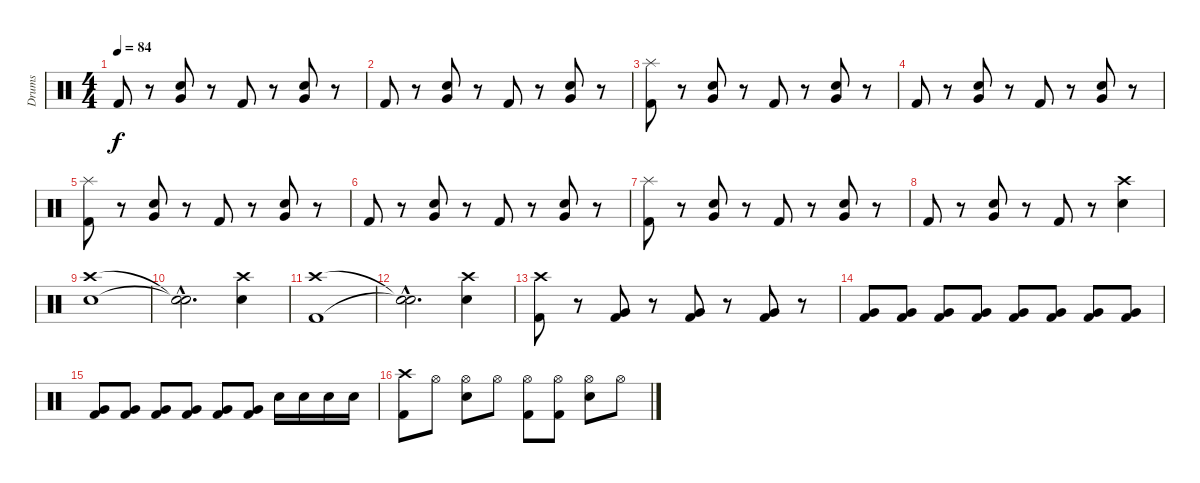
\track ("Drums" "Drums") {instrument percussion}
\staff {score}
\articulation defaults
\ts (4 4)
\tempo 84
\clef neutral
\ks c "Kick (hit) 2".8{dy f}
r.8 ("Very Low Tom (hit)" "Snare (hit) 2").8 r.8 "Kick (hit) 2".8 r.8 ("Very Low Tom (hit)" "Snare (hit) 2").8 r.8 |
"Kick (hit) 2".8 r.8 ("Very Low Tom (hit)" "Snare (hit) 2").8 r.8 "Kick (hit) 2".8 r.8 ("Very Low Tom (hit)" "Snare (hit) 2").8 r.8 |
("Splash (hit)" "Kick (hit) 2").8 r.8 ("Very Low Tom (hit)" "Snare (hit) 2").8 r.8 "Kick (hit) 2".8 r.8 ("Very Low Tom (hit)" "Snare (hit) 2").8 r.8 |
"Kick (hit) 2".8 r.8 ("Very Low Tom (hit)" "Snare (hit) 2").8 r.8 "Kick (hit) 2".8 r.8 ("Very Low Tom (hit)" "Snare (hit) 2").8 r.8 |
("Splash (hit)" "Kick (hit) 2").8 r.8 ("Very Low Tom (hit)" "Snare (hit) 2").8 r.8 "Kick (hit) 2".8 r.8 ("Very Low Tom (hit)" "Snare (hit) 2").8 r.8 |
"Kick (hit) 2".8 r.8 ("Very Low Tom (hit)" "Snare (hit) 2").8 r.8 "Kick (hit) 2".8 r.8 ("Very Low Tom (hit)" "Snare (hit) 2").8 r.8 |
("Splash (hit)" "Kick (hit) 2").8 r.8 ("Very Low Tom (hit)" "Snare (hit) 2").8 r.8 "Kick (hit) 2".8 r.8 ("Very Low Tom (hit)" "Snare (hit) 2").8 r.8 |
"Kick (hit) 2".8 r.8 ("Very Low Tom (hit)" "Snare (hit) 2").8 r.8 "Kick (hit) 2".8 r.8 ("Crash high (hit)" "Snare (hit) 2").4 |
("Crash high (hit)" "Snare (hit) 2").1 |
("Snare (hit)"{hac t} "Snare (hit)"{hac t}).2{d} ("Crash high (hit)" "Snare (hit) 2").4 |
("Crash high (hit)" "Kick (hit) 2").1 |
("Snare (hit)"{hac t} "Snare (hit)"{hac t}).2{d} ("Crash high (hit)" "Snare (hit) 2").4 |
("Crash high (hit)" "Kick (hit) 2").8 r.8 ("Very Low Tom (hit)" "Kick (hit) 2").8 r.8 ("Very Low Tom (hit)" "Kick (hit) 2").8 r.8 ("Very Low Tom (hit)" "Kick (hit) 2").8 r.8 |
("Very Low Tom (hit)" "Kick (hit) 2").8 ("Very Low Tom (hit)" "Kick (hit) 2").8 ("Very Low Tom (hit)" "Kick (hit) 2").8 ("Very Low Tom (hit)" "Kick (hit) 2").8 ("Very Low Tom (hit)" "Kick (hit) 2").8 ("Very Low Tom (hit)" "Kick (hit) 2").8 ("Very Low Tom (hit)" "Kick (hit) 2").8 ("Very Low Tom (hit)" "Kick (hit) 2").8 |
("Very Low Tom (hit)" "Kick (hit) 2").8 ("Very Low Tom (hit)" "Kick (hit) 2").8 ("Very Low Tom (hit)" "Kick (hit) 2").8 ("Very Low Tom (hit)" "Kick (hit) 2").8 ("Very Low Tom (hit)" "Kick (hit) 2").8 ("Very Low Tom (hit)" "Kick (hit) 2").8 "Snare (hit) 2".16 "Snare (hit) 2".16 "Snare (hit) 2".16 "Snare (hit) 2".16 |
("Crash high (hit)" "Kick (hit) 2").8 "Hi-Hat (open)".8 ("Hi-Hat (open)" "Snare (hit) 2").8 "Hi-Hat (open)".8 ("Hi-Hat (open)" "Kick (hit) 2").8 ("Hi-Hat (open)" "Kick (hit) 2").8 ("Hi-Hat (open)" "Snare (hit) 2").8 "Hi-Hat (open)".8
